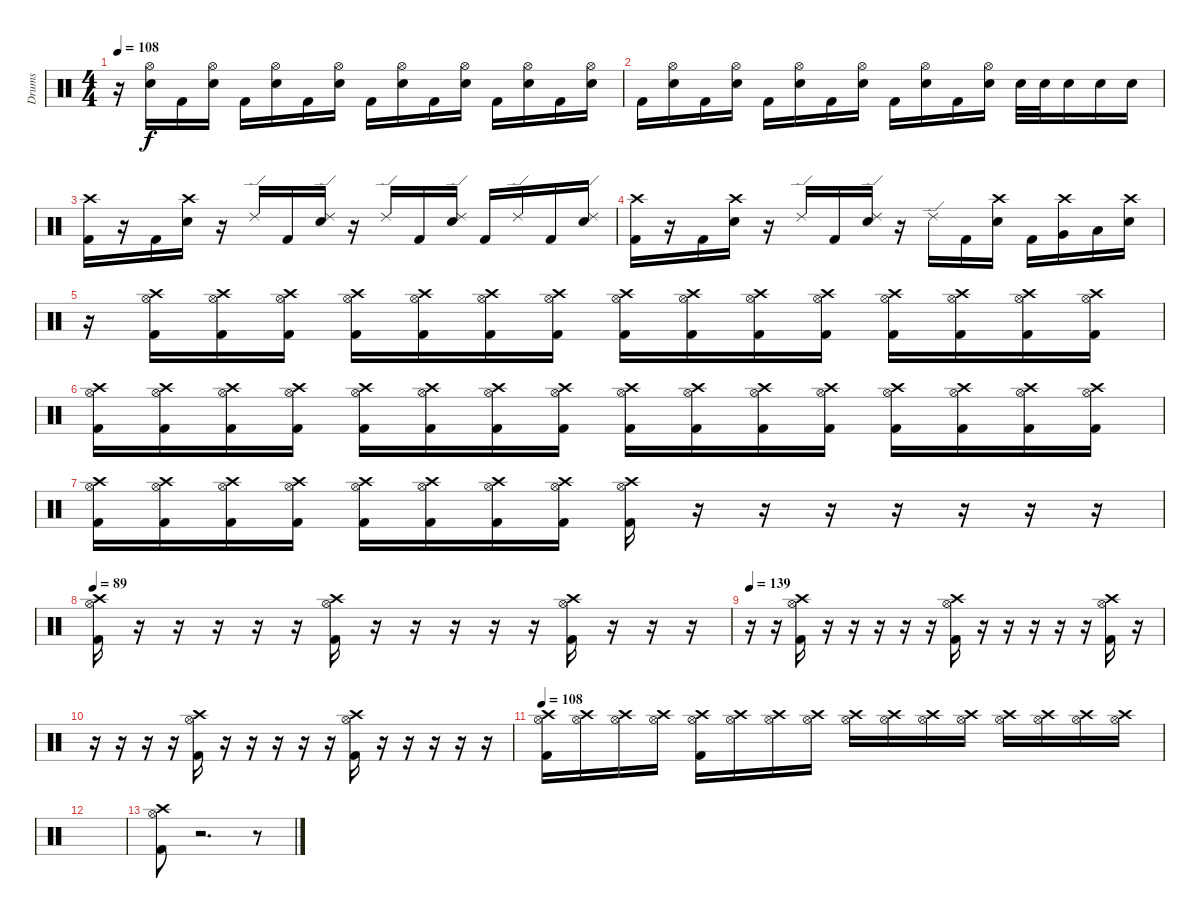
\track ("Drums" "Drums") {instrument percussion}
\staff {score}
\articulation defaults
\ts (4 4)
\tempo 108
\clef neutral
\ks c
r.16{dy f} ("Hi-Hat (open)" "Electric Snare (hit)").16 "Kick (hit) 2".16 ("Hi-Hat (open)" "Electric Snare (hit)").16 "Kick (hit) 2".16 ("Hi-Hat (open)" "Electric Snare (hit)").16 "Kick (hit) 2".16 ("Hi-Hat (open)" "Electric Snare (hit)").16 "Kick (hit) 2".16 ("Hi-Hat (open)" "Electric Snare (hit)").16 "Kick (hit) 2".16 ("Hi-Hat (open)" "Electric Snare (hit)").16 "Kick (hit) 2".16 ("Hi-Hat (open)" "Electric Snare (hit)").16 "Kick (hit) 2".16 ("Hi-Hat (open)" "Electric Snare (hit)").16 |
"Kick (hit) 2".16 ("Hi-Hat (open)" "Electric Snare (hit)").16 "Kick (hit) 2".16 ("Hi-Hat (open)" "Electric Snare (hit)").16 "Kick (hit) 2".16 ("Hi-Hat (open)" "Electric Snare (hit)").16 "Kick (hit) 2".16 ("Hi-Hat (open)" "Electric Snare (hit)").16 "Kick (hit) 2".16 ("Hi-Hat (open)" "Electric Snare (hit)").16 "Kick (hit) 2".16 ("Hi-Hat (open)" "Electric Snare (hit)").16 "Electric Snare (hit)".32 "Electric Snare (hit)".32 "Electric Snare (hit)".16 "Electric Snare (hit)".16 "Electric Snare (hit)".16 |
("Crash high (hit)" "Kick (hit) 2").16 r.16 "Kick (hit) 2".16 ("Crash high (hit)" "Electric Snare (hit)").16 r.16 "Ride (edge) 2".16 "Kick (hit) 2".16 ("Ride (edge) 2" "Electric Snare (hit)").16 r.16 "Ride (edge) 2".16 "Kick (hit) 2".16 ("Ride (edge) 2" "Electric Snare (hit)").16 "Kick (hit) 2".16 "Ride (edge) 2".16 "Kick (hit) 2".16 ("Ride (edge) 2" "Electric Snare (hit)").16 |
("Crash high (hit)" "Kick (hit) 2").16 r.16 "Kick (hit) 2".16 ("Crash high (hit)" "Electric Snare (hit)").16 r.16 "Ride (edge) 2".16 "Kick (hit) 2".16 ("Ride (edge) 2" "Electric Snare (hit)").16 r.16 "Ride (edge) 2".16 "Kick (hit) 2".16 ("Crash high (hit)" "Electric Snare (hit)").16 "Kick (hit) 2".16 ("Crash high (hit)" "Very Low Tom (hit)").16 "Low Floor Tom (hit)".16 ("Crash high (hit)" "Electric Snare (hit)").16 |
r.16 ("Crash high (hit)" "Hi-Hat (open)" "Kick (hit) 2").16 ("Crash high (hit)" "Hi-Hat (open)" "Kick (hit) 2").16 ("Crash high (hit)" "Hi-Hat (open)" "Kick (hit) 2").16 ("Crash high (hit)" "Hi-Hat (open)" "Kick (hit) 2").16 ("Crash high (hit)" "Hi-Hat (open)" "Kick (hit) 2").16 ("Crash high (hit)" "Hi-Hat (open)" "Kick (hit) 2").16 ("Crash high (hit)" "Hi-Hat (open)" "Kick (hit) 2").16 ("Crash high (hit)" "Hi-Hat (open)" "Kick (hit) 2").16 ("Crash high (hit)" "Hi-Hat (open)" "Kick (hit) 2").16 ("Crash high (hit)" "Hi-Hat (open)" "Kick (hit) 2").16 ("Crash high (hit)" "Hi-Hat (open)" "Kick (hit) 2").16 ("Crash high (hit)" "Hi-Hat (open)" "Kick (hit) 2").16 ("Crash high (hit)" "Hi-Hat (open)" "Kick (hit) 2").16 ("Crash high (hit)" "Hi-Hat (open)" "Kick (hit) 2").16 ("Crash high (hit)" "Hi-Hat (open)" "Kick (hit) 2").16 |
("Crash high (hit)" "Hi-Hat (open)" "Kick (hit) 2").16 ("Crash high (hit)" "Hi-Hat (open)" "Kick (hit) 2").16 ("Crash high (hit)" "Hi-Hat (open)" "Kick (hit) 2").16 ("Crash high (hit)" "Hi-Hat (open)" "Kick (hit) 2").16 ("Crash high (hit)" "Hi-Hat (open)" "Kick (hit) 2").16 ("Crash high (hit)" "Hi-Hat (open)" "Kick (hit) 2").16 ("Crash high (hit)" "Hi-Hat (open)" "Kick (hit) 2").16 ("Crash high (hit)" "Hi-Hat (open)" "Kick (hit) 2").16 ("Crash high (hit)" "Hi-Hat (open)" "Kick (hit) 2").16 ("Crash high (hit)" "Hi-Hat (open)" "Kick (hit) 2").16 ("Crash high (hit)" "Hi-Hat (open)" "Kick (hit) 2").16 ("Crash high (hit)" "Hi-Hat (open)" "Kick (hit) 2").16 ("Crash high (hit)" "Hi-Hat (open)" "Kick (hit) 2").16 ("Crash high (hit)" "Hi-Hat (open)" "Kick (hit) 2").16 ("Crash high (hit)" "Hi-Hat (open)" "Kick (hit) 2").16 ("Crash high (hit)" "Hi-Hat (open)" "Kick (hit) 2").16 |
("Crash high (hit)" "Hi-Hat (open)" "Kick (hit) 2").16 ("Crash high (hit)" "Hi-Hat (open)" "Kick (hit) 2").16 ("Crash high (hit)" "Hi-Hat (open)" "Kick (hit) 2").16 ("Crash high (hit)" "Hi-Hat (open)" "Kick (hit) 2").16 ("Crash high (hit)" "Hi-Hat (open)" "Kick (hit) 2").16 ("Crash high (hit)" "Hi-Hat (open)" "Kick (hit) 2").16 ("Crash high (hit)" "Hi-Hat (open)" "Kick (hit) 2").16 ("Crash high (hit)" "Hi-Hat (open)" "Kick (hit) 2").16 ("Crash high (hit)" "Hi-Hat (open)" "Kick (hit) 2").16 r.16 r.16 r.16 r.16 r.16 r.16 r.16 |
\tempo 89
("Crash high (hit)" "Hi-Hat (open)" "Kick (hit) 2").16 r.16 r.16 r.16 r.16 r.16 ("Crash high (hit)" "Hi-Hat (open)" "Kick (hit) 2").16 r.16 r.16 r.16 r.16 r.16 ("Crash high (hit)" "Hi-Hat (open)" "Kick (hit) 2").16 r.16 r.16 r.16 |
\tempo 139
r.16 r.16 ("Crash high (hit)" "Hi-Hat (open)" "Kick (hit) 2").16 r.16 r.16 r.16 r.16 r.16 ("Crash high (hit)" "Hi-Hat (open)" "Kick (hit) 2").16 r.16 r.16 r.16 r.16 r.16 ("Crash high (hit)" "Hi-Hat (open)" "Kick (hit) 2").16 r.16 |
r.16 r.16 r.16 r.16 ("Crash high (hit)" "Hi-Hat (open)" "Kick (hit) 2").16 r.16 r.16 r.16 r.16 r.16 ("Crash high (hit)" "Hi-Hat (open)" "Kick (hit) 2").16 r.16 r.16 r.16 r.16 r.16 |
\tempo 108
("Crash high (hit)" "Hi-Hat (open)" "Kick (hit) 2").16 ("Crash high (hit)" "Hi-Hat (open)").16 ("Crash high (hit)" "Hi-Hat (open)").16 ("Crash high (hit)" "Hi-Hat (open)").16 ("Crash high (hit)" "Hi-Hat (open)" "Kick (hit) 2").16 ("Crash high (hit)" "Hi-Hat (open)").16 ("Crash high (hit)" "Hi-Hat (open)").16 ("Crash high (hit)" "Hi-Hat (open)").16 ("Crash high (hit)" "Hi-Hat (open)").16 ("Crash high (hit)" "Hi-Hat (open)").16 ("Crash high (hit)" "Hi-Hat (open)").16 ("Crash high (hit)" "Hi-Hat (open)").16 ("Crash high (hit)" "Hi-Hat (open)").16 ("Crash high (hit)" "Hi-Hat (open)").16 ("Crash high (hit)" "Hi-Hat (open)").16 ("Crash high (hit)" "Hi-Hat (open)").16 |
|
("Crash high (hit)" "Hi-Hat (open)" "Kick (hit) 2").8 r.2{d} r.8
